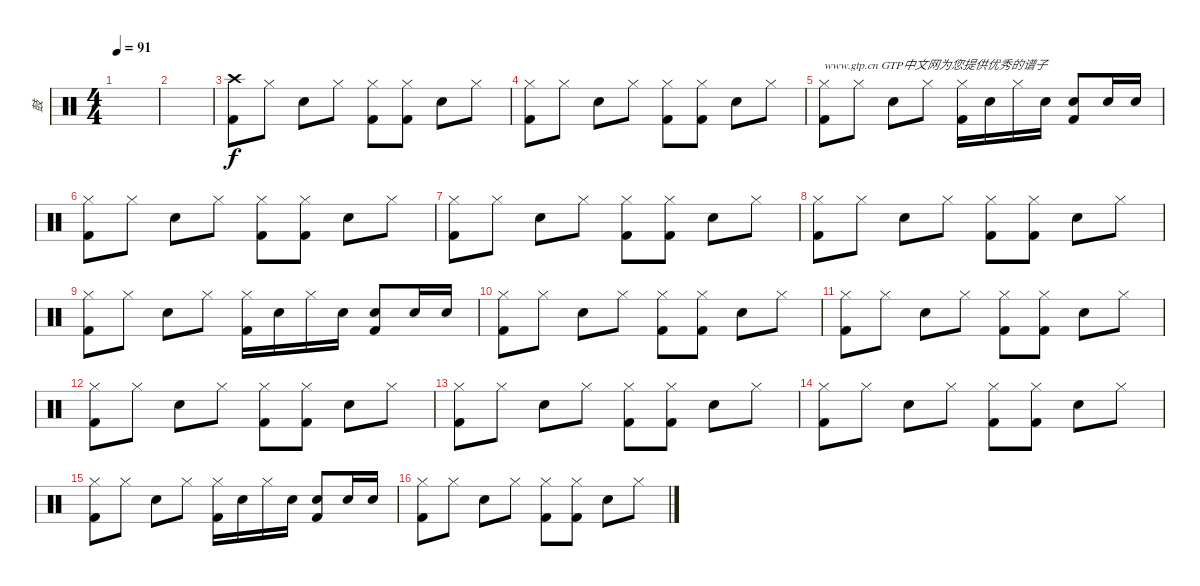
\track ("鼓" "鼓") {instrument percussion}
\staff {score}
\articulation defaults
\ts (4 4)
\tempo 91
\clef neutral
\ks c
|
|
("Crash high (hit)" "Kick (hit) 2").8 "Hi-Hat (closed)".8 "Snare (hit) 2".8 "Hi-Hat (closed)".8 ("Hi-Hat (closed)" "Kick (hit) 2").8 ("Hi-Hat (closed)" "Kick (hit) 2").8 "Snare (hit) 2".8 "Hi-Hat (closed)".8 |
("Hi-Hat (closed)" "Kick (hit) 2").8 "Hi-Hat (closed)".8 "Snare (hit) 2".8 "Hi-Hat (closed)".8 ("Hi-Hat (closed)" "Kick (hit) 2").8 ("Hi-Hat (closed)" "Kick (hit) 2").8 "Snare (hit) 2".8 "Hi-Hat (closed)".8 |
("Hi-Hat (closed)" "Kick (hit) 2").8{txt "www.gtp.cn GTP中文网为您提供优秀的谱子"} "Hi-Hat (closed)".8 "Snare (hit) 2".8 "Hi-Hat (closed)".8 ("Hi-Hat (closed)" "Kick (hit) 2").16 "Snare (hit) 2".16 "Hi-Hat (closed)".16 "Snare (hit) 2".16 ("Snare (hit) 2" "Kick (hit) 2").8 "Snare (hit) 2".16 "Snare (hit) 2".16 |
("Hi-Hat (closed)" "Kick (hit) 2").8 "Hi-Hat (closed)".8 "Snare (hit) 2".8 "Hi-Hat (closed)".8 ("Hi-Hat (closed)" "Kick (hit) 2").8 ("Hi-Hat (closed)" "Kick (hit) 2").8 "Snare (hit) 2".8 "Hi-Hat (closed)".8 |
("Hi-Hat (closed)" "Kick (hit) 2").8 "Hi-Hat (closed)".8 "Snare (hit) 2".8 "Hi-Hat (closed)".8 ("Hi-Hat (closed)" "Kick (hit) 2").8 ("Hi-Hat (closed)" "Kick (hit) 2").8 "Snare (hit) 2".8 "Hi-Hat (closed)".8 |
("Hi-Hat (closed)" "Kick (hit) 2").8 "Hi-Hat (closed)".8 "Snare (hit) 2".8 "Hi-Hat (closed)".8 ("Hi-Hat (closed)" "Kick (hit) 2").8 ("Hi-Hat (closed)" "Kick (hit) 2").8 "Snare (hit) 2".8 "Hi-Hat (closed)".8 |
("Hi-Hat (closed)" "Kick (hit) 2").8 "Hi-Hat (closed)".8 "Snare (hit) 2".8 "Hi-Hat (closed)".8 ("Hi-Hat (closed)" "Kick (hit) 2").16 "Snare (hit) 2".16 "Hi-Hat (closed)".16 "Snare (hit) 2".16 ("Snare (hit) 2" "Kick (hit) 2").8 "Snare (hit) 2".16 "Snare (hit) 2".16 |
("Hi-Hat (closed)" "Kick (hit) 2").8 "Hi-Hat (closed)".8 "Snare (hit) 2".8 "Hi-Hat (closed)".8 ("Hi-Hat (closed)" "Kick (hit) 2").8 ("Hi-Hat (closed)" "Kick (hit) 2").8 "Snare (hit) 2".8 "Hi-Hat (closed)".8 |
("Hi-Hat (closed)" "Kick (hit) 2").8 "Hi-Hat (closed)".8 "Snare (hit) 2".8 "Hi-Hat (closed)".8 ("Hi-Hat (closed)" "Kick (hit) 2").8 ("Hi-Hat (closed)" "Kick (hit) 2").8 "Snare (hit) 2".8 "Hi-Hat (closed)".8 |
("Hi-Hat (closed)" "Kick (hit) 2").8 "Hi-Hat (closed)".8 "Snare (hit) 2".8 "Hi-Hat (closed)".8 ("Hi-Hat (closed)" "Kick (hit) 2").8 ("Hi-Hat (closed)" "Kick (hit) 2").8 "Snare (hit) 2".8 "Hi-Hat (closed)".8 |
("Hi-Hat (closed)" "Kick (hit) 2").8 "Hi-Hat (closed)".8 "Snare (hit) 2".8 "Hi-Hat (closed)".8 ("Hi-Hat (closed)" "Kick (hit) 2").8 ("Hi-Hat (closed)" "Kick (hit) 2").8 "Snare (hit) 2".8 "Hi-Hat (closed)".8 |
("Hi-Hat (closed)" "Kick (hit) 2").8 "Hi-Hat (closed)".8 "Snare (hit) 2".8 "Hi-Hat (closed)".8 ("Hi-Hat (closed)" "Kick (hit) 2").8 ("Hi-Hat (closed)" "Kick (hit) 2").8 "Snare (hit) 2".8 "Hi-Hat (closed)".8 |
("Hi-Hat (closed)" "Kick (hit) 2").8 "Hi-Hat (closed)".8 "Snare (hit) 2".8 "Hi-Hat (closed)".8 ("Hi-Hat (closed)" "Kick (hit) 2").16 "Snare (hit) 2".16 "Hi-Hat (closed)".16 "Snare (hit) 2".16 ("Snare (hit) 2" "Kick (hit) 2").8 "Snare (hit) 2".16 "Snare (hit) 2".16 |
("Hi-Hat (closed)" "Kick (hit) 2").8 "Hi-Hat (closed)".8 "Snare (hit) 2".8 "Hi-Hat (closed)".8 ("Hi-Hat (closed)" "Kick (hit) 2").8 ("Hi-Hat (closed)" "Kick (hit) 2").8 "Snare (hit) 2".8 "Hi-Hat (closed)".8
